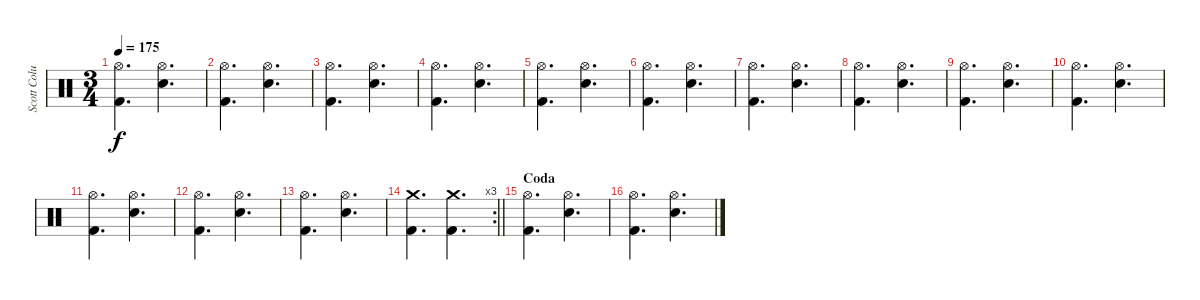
\track ("Scott Columbus" "Scott Colu") {instrument percussion}
\staff {score}
\articulation defaults
\ts (3 4)
\tempo 175
\clef neutral
\ks c
("Kick (hit) 2" "Hi-Hat (open)").4{d dy f} ("Snare (hit) 2" "Hi-Hat (open)").4{d} |
("Kick (hit) 2" "Hi-Hat (open)").4{d} ("Snare (hit) 2" "Hi-Hat (open)").4{d} |
("Kick (hit) 2" "Hi-Hat (open)").4{d} ("Snare (hit) 2" "Hi-Hat (open)").4{d} |
("Kick (hit) 2" "Hi-Hat (open)").4{d} ("Snare (hit) 2" "Hi-Hat (open)").4{d} |
("Kick (hit) 2" "Hi-Hat (open)").4{d} ("Snare (hit) 2" "Hi-Hat (open)").4{d} |
("Kick (hit) 2" "Hi-Hat (open)").4{d} ("Snare (hit) 2" "Hi-Hat (open)").4{d} |
("Kick (hit) 2" "Hi-Hat (open)").4{d} ("Snare (hit) 2" "Hi-Hat (open)").4{d} |
("Kick (hit) 2" "Hi-Hat (open)").4{d} ("Snare (hit) 2" "Hi-Hat (open)").4{d} |
("Kick (hit) 2" "Hi-Hat (open)").4{d} ("Snare (hit) 2" "Hi-Hat (open)").4{d} |
("Kick (hit) 2" "Hi-Hat (open)").4{d} ("Snare (hit) 2" "Hi-Hat (open)").4{d} |
("Kick (hit) 2" "Hi-Hat (open)").4{d} ("Snare (hit) 2" "Hi-Hat (open)").4{d} |
("Kick (hit) 2" "Hi-Hat (open)").4{d} ("Snare (hit) 2" "Hi-Hat (open)").4{d} |
("Kick (hit) 2" "Hi-Hat (open)").4{d} ("Snare (hit) 2" "Hi-Hat (open)").4{d} |
\rc 3
\barLineRight lightlight
("Kick (hit) 2" "Crash medium (hit)").4{d} ("Kick (hit) 2" "Crash medium (hit)").4{d} |
\section ("" "Coda")
("Kick (hit) 2" "Hi-Hat (open)").4{d} ("Snare (hit) 2" "Hi-Hat (open)").4{d} |
("Kick (hit) 2" "Hi-Hat (open)").4{d} ("Snare (hit) 2" "Hi-Hat (open)").4{d}
